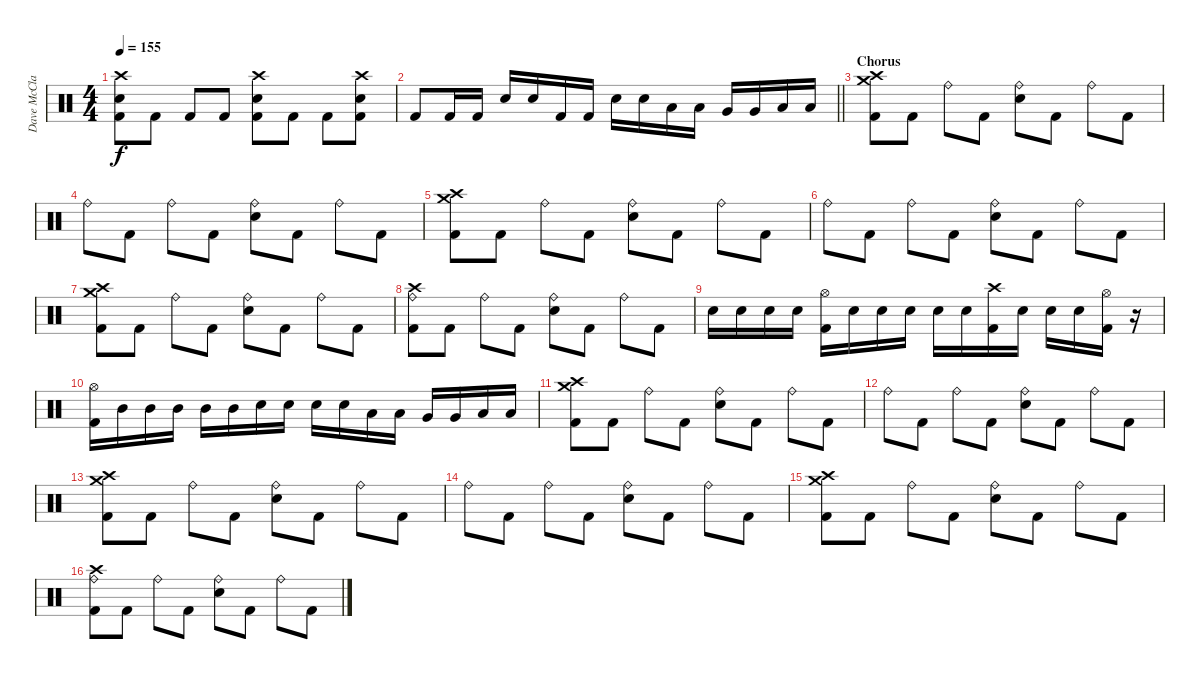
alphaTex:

\track ("Dave McClain (Drums)" "Dave McCla") {instrument percussion}
\staff {score}
\articulation defaults
\ts (4 4)
\tempo 155
\clef neutral
\ks c
("Crash high (hit)" "Electric Snare (hit)" "Kick (hit) 2").8{dy f} "Kick (hit) 2".8 "Kick (hit) 2".8 "Kick (hit) 2".8 ("Crash high (hit)" "Electric Snare (hit)" "Kick (hit) 2").8 "Kick (hit) 2".8 "Kick (hit) 2".8 ("Crash high (hit)" "Electric Snare (hit)" "Kick (hit) 2").8 |
\barLineRight lightlight "Kick (hit) 2".8 "Kick (hit) 2".16 "Kick (hit) 2".16 "Electric Snare (hit)".16 "Electric Snare (hit)".16 "Kick (hit) 2".16 "Kick (hit) 2".16 "Electric Snare (hit)".16 "Electric Snare (hit)".16 "Low Tom (hit)".16 "Low Tom (hit)".16 "Very Low Tom (hit)".16 "Very Low Tom (hit)".16 "Low Floor Tom (hit)".16 "Low Floor Tom (hit)".16
|
\section ("" "Chorus")
("Crash high (hit)" "Crash medium (hit)" "Kick (hit) 2").8 "Kick (hit) 2".8 "Ride (bell)".8 "Kick (hit) 2".8 ("Ride (bell)" "Electric Snare (hit)").8 "Kick (hit) 2".8 "Ride (bell)".8 "Kick (hit) 2".8 |
"Ride (bell)".8 "Kick (hit) 2".8 "Ride (bell)".8 "Kick (hit) 2".8 ("Ride (bell)" "Electric Snare (hit)").8 "Kick (hit) 2".8 "Ride (bell)".8 "Kick (hit) 2".8 |
("Crash high (hit)" "Crash medium (hit)" "Kick (hit) 2").8 "Kick (hit) 2".8 "Ride (bell)".8 "Kick (hit) 2".8 ("Ride (bell)" "Electric Snare (hit)").8 "Kick (hit) 2".8 "Ride (bell)".8 "Kick (hit) 2".8 |
"Ride (bell)".8 "Kick (hit) 2".8 "Ride (bell)".8 "Kick (hit) 2".8 ("Ride (bell)" "Electric Snare (hit)").8 "Kick (hit) 2".8 "Ride (bell)".8 "Kick (hit) 2".8 |
("Crash high (hit)" "Crash medium (hit)" "Kick (hit) 2").8 "Kick (hit) 2".8 "Ride (bell)".8 "Kick (hit) 2".8 ("Ride (bell)" "Electric Snare (hit)").8 "Kick (hit) 2".8 "Ride (bell)".8 "Kick (hit) 2".8 |
("Crash high (hit)" "Ride (bell)" "Kick (hit) 2").8 "Kick (hit) 2".8 "Ride (bell)".8 "Kick (hit) 2".8 ("Ride (bell)" "Electric Snare (hit)").8 "Kick (hit) 2".8 "Ride (bell)".8 "Kick (hit) 2".8 |
"Electric Snare (hit)".16 "Electric Snare (hit)".16 "Electric Snare (hit)".16 "Electric Snare (hit)".16 ("Hi-Hat (open)" "Kick (hit) 2").16 "Electric Snare (hit)".16 "Electric Snare (hit)".16 "Electric Snare (hit)".16 "Electric Snare (hit)".16 "Electric Snare (hit)".16 ("Crash high (hit)" "Kick (hit) 2").16 "Electric Snare (hit)".16 "Electric Snare (hit)".16 "Electric Snare (hit)".16 ("Hi-Hat (open)" "Kick (hit) 2").16 r.16 |
("Hi-Hat (open)" "Kick (hit) 2").16 "Mid Tom (hit)".16 "Mid Tom (hit)".16 "Mid Tom (hit)".16 "Mid Tom (hit)".16 "Mid Tom (hit)".16 "Electric Snare (hit)".16 "Electric Snare (hit)".16 "Electric Snare (hit)".16 "Electric Snare (hit)".16 "Low Tom (hit)".16 "Low Tom (hit)".16 "Very Low Tom (hit)".16 "Very Low Tom (hit)".16 "Low Floor Tom (hit)".16 "Low Floor Tom (hit)".16 |
("Crash high (hit)" "Crash medium (hit)" "Kick (hit) 2").8 "Kick (hit) 2".8 "Ride (bell)".8 "Kick (hit) 2".8 ("Ride (bell)" "Electric Snare (hit)").8 "Kick (hit) 2".8 "Ride (bell)".8 "Kick (hit) 2".8 |
"Ride (bell)".8 "Kick (hit) 2".8 "Ride (bell)".8 "Kick (hit) 2".8 ("Ride (bell)" "Electric Snare (hit)").8 "Kick (hit) 2".8 "Ride (bell)".8 "Kick (hit) 2".8 |
("Crash high (hit)" "Crash medium (hit)" "Kick (hit) 2").8 "Kick (hit) 2".8 "Ride (bell)".8 "Kick (hit) 2".8 ("Ride (bell)" "Electric Snare (hit)").8 "Kick (hit) 2".8 "Ride (bell)".8 "Kick (hit) 2".8 |
"Ride (bell)".8 "Kick (hit) 2".8 "Ride (bell)".8 "Kick (hit) 2".8 ("Ride (bell)" "Electric Snare (hit)").8 "Kick (hit) 2".8 "Ride (bell)".8 "Kick (hit) 2".8 |
("Crash high (hit)" "Crash medium (hit)" "Kick (hit) 2").8 "Kick (hit) 2".8 "Ride (bell)".8 "Kick (hit) 2".8 ("Ride (bell)" "Electric Snare (hit)").8 "Kick (hit) 2".8 "Ride (bell)".8 "Kick (hit) 2".8 |
("Crash high (hit)" "Ride (bell)" "Kick (hit) 2").8 "Kick (hit) 2".8 "Ride (bell)".8 "Kick (hit) 2".8 ("Ride (bell)" "Electric Snare (hit)").8 "Kick (hit) 2".8 "Ride (bell)".8 "Kick (hit) 2".8
